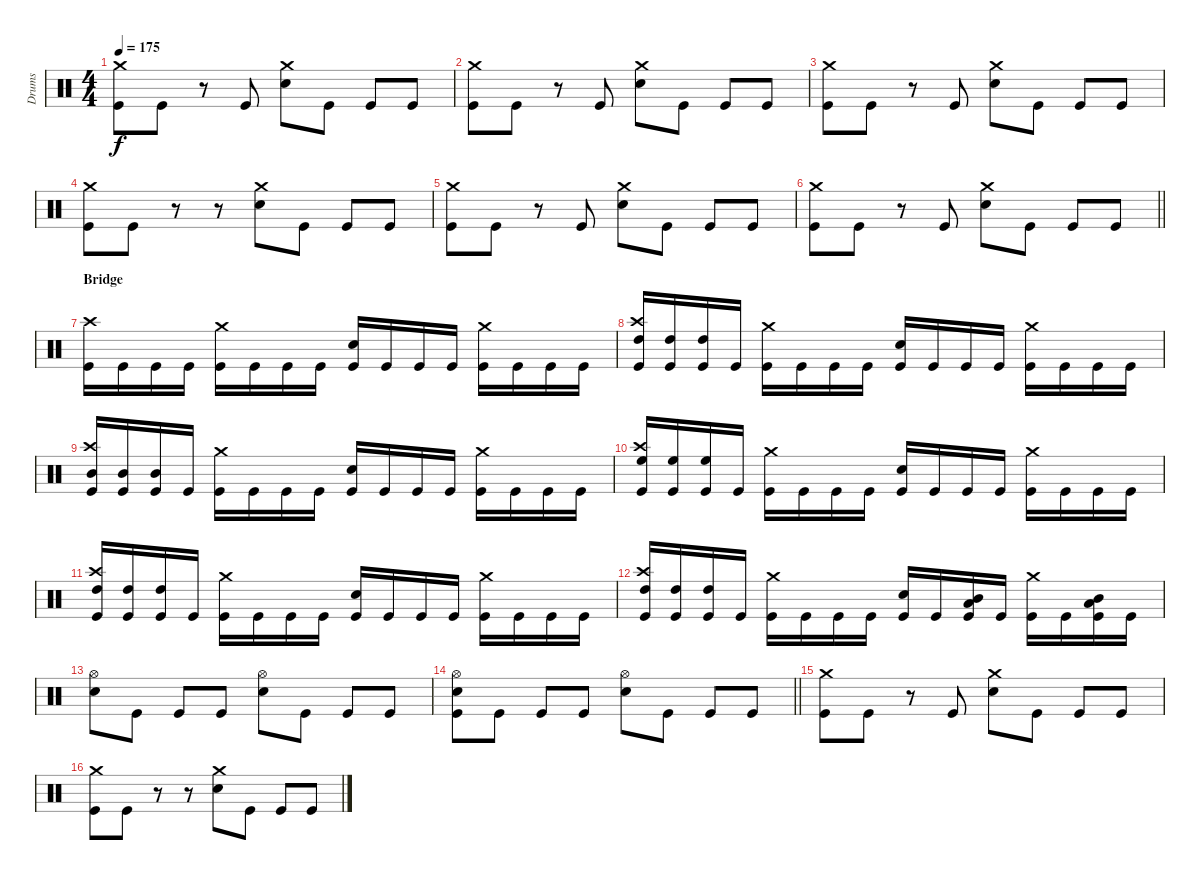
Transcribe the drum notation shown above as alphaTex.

\track ("Drums" "Drums") {instrument percussion}
\staff {score}
\articulation defaults
\ts (4 4)
\tempo 175
\clef neutral
\ks c
("Crash medium (hit)" "Kick (hit)").8{dy f} "Kick (hit)".8 r.8 "Kick (hit)".8 ("Crash medium (hit)" "Electric Snare (hit)").8 "Kick (hit)".8 "Kick (hit)".8 "Kick (hit)".8 |
("Crash medium (hit)" "Kick (hit)").8 "Kick (hit)".8 r.8 "Kick (hit)".8 ("Crash medium (hit)" "Electric Snare (hit)").8 "Kick (hit)".8 "Kick (hit)".8 "Kick (hit)".8 |
("Crash medium (hit)" "Kick (hit)").8 "Kick (hit)".8 r.8 "Kick (hit)".8 ("Crash medium (hit)" "Electric Snare (hit)").8 "Kick (hit)".8 "Kick (hit)".8 "Kick (hit)".8 |
("Crash medium (hit)" "Kick (hit)").8 "Kick (hit)".8 r.8 r.8 ("Crash medium (hit)" "Electric Snare (hit)").8 "Kick (hit)".8 "Kick (hit)".8 "Kick (hit)".8 |
("Crash medium (hit)" "Kick (hit)").8 "Kick (hit)".8 r.8 "Kick (hit)".8 ("Crash medium (hit)" "Electric Snare (hit)").8 "Kick (hit)".8 "Kick (hit)".8 "Kick (hit)".8 |
\barLineRight lightlight
("Crash medium (hit)" "Kick (hit)").8 "Kick (hit)".8 r.8 "Kick (hit)".8 ("Crash medium (hit)" "Electric Snare (hit)").8 "Kick (hit)".8 "Kick (hit)".8 "Kick (hit)".8 |
\section ("" "Bridge")
("Crash high (hit)" "Kick (hit)").16 "Kick (hit)".16 "Kick (hit)".16 "Kick (hit)".16 ("Crash medium (hit)" "Kick (hit)").16 "Kick (hit)".16 "Kick (hit)".16 "Kick (hit)".16 ("Electric Snare (hit)" "Kick (hit)").16 "Kick (hit)".16 "Kick (hit)".16 "Kick (hit)".16 ("Crash medium (hit)" "Kick (hit)").16 "Kick (hit)".16 "Kick (hit)".16 "Kick (hit)".16 |
("Crash high (hit)" "High Tom (hit)" "Kick (hit)").16 ("High Tom (hit)" "Kick (hit)").16 ("High Tom (hit)" "Kick (hit)").16 "Kick (hit)".16 ("Crash medium (hit)" "Kick (hit)").16 "Kick (hit)".16 "Kick (hit)".16 "Kick (hit)".16 ("Electric Snare (hit)" "Kick (hit)").16 "Kick (hit)".16 "Kick (hit)".16 "Kick (hit)".16 ("Crash medium (hit)" "Kick (hit)").16 "Kick (hit)".16 "Kick (hit)".16 "Kick (hit)".16 |
("Crash high (hit)" "Mid Tom (hit)" "Kick (hit)").16 ("Mid Tom (hit)" "Kick (hit)").16 ("Mid Tom (hit)" "Kick (hit)").16 "Kick (hit)".16 ("Crash medium (hit)" "Kick (hit)").16 "Kick (hit)".16 "Kick (hit)".16 "Kick (hit)".16 ("Electric Snare (hit)" "Kick (hit)").16 "Kick (hit)".16 "Kick (hit)".16 "Kick (hit)".16 ("Crash medium (hit)" "Kick (hit)").16 "Kick (hit)".16 "Kick (hit)".16 "Kick (hit)".16 |
("Crash high (hit)" "High Floor Tom (hit)" "Kick (hit)").16 ("High Floor Tom (hit)" "Kick (hit)").16 ("High Floor Tom (hit)" "Kick (hit)").16 "Kick (hit)".16 ("Crash medium (hit)" "Kick (hit)").16 "Kick (hit)".16 "Kick (hit)".16 "Kick (hit)".16 ("Electric Snare (hit)" "Kick (hit)").16 "Kick (hit)".16 "Kick (hit)".16 "Kick (hit)".16 ("Crash medium (hit)" "Kick (hit)").16 "Kick (hit)".16 "Kick (hit)".16 "Kick (hit)".16 |
("Crash high (hit)" "High Tom (hit)" "Kick (hit)").16 ("High Tom (hit)" "Kick (hit)").16 ("High Tom (hit)" "Kick (hit)").16 "Kick (hit)".16 ("Crash medium (hit)" "Kick (hit)").16 "Kick (hit)".16 "Kick (hit)".16 "Kick (hit)".16 ("Electric Snare (hit)" "Kick (hit)").16 "Kick (hit)".16 "Kick (hit)".16 "Kick (hit)".16 ("Crash medium (hit)" "Kick (hit)").16 "Kick (hit)".16 "Kick (hit)".16 "Kick (hit)".16 |
("Crash high (hit)" "High Tom (hit)" "Kick (hit)").16 ("High Tom (hit)" "Kick (hit)").16 ("High Tom (hit)" "Kick (hit)").16 "Kick (hit)".16 ("Crash medium (hit)" "Kick (hit)").16 "Kick (hit)".16 "Kick (hit)".16 "Kick (hit)".16 ("Electric Snare (hit)" "Kick (hit)").16 "Kick (hit)".16 ("Mid Tom (hit)" "Low Tom (hit)" "Kick (hit)").16 "Kick (hit)".16 ("Crash medium (hit)" "Kick (hit)").16 "Kick (hit)".16 ("Mid Tom (hit)" "Low Tom (hit)" "Kick (hit)").16 "Kick (hit)".16 |
("Hi-Hat (open)" "Electric Snare (hit)").8 "Kick (hit)".8 "Kick (hit)".8 "Kick (hit)".8 ("Hi-Hat (open)" "Electric Snare (hit)").8 "Kick (hit)".8 "Kick (hit)".8 "Kick (hit)".8 |
\barLineRight lightlight
("Hi-Hat (open)" "Electric Snare (hit)" "Kick (hit)").8 "Kick (hit)".8 "Kick (hit)".8 "Kick (hit)".8 ("Hi-Hat (open)" "Electric Snare (hit)").8 "Kick (hit)".8 "Kick (hit)".8 "Kick (hit)".8 |
("Crash medium (hit)" "Kick (hit)").8 "Kick (hit)".8 r.8 "Kick (hit)".8 ("Crash medium (hit)" "Electric Snare (hit)").8 "Kick (hit)".8 "Kick (hit)".8 "Kick (hit)".8 |
("Crash medium (hit)" "Kick (hit)").8 "Kick (hit)".8 r.8 r.8 ("Crash medium (hit)" "Electric Snare (hit)").8 "Kick (hit)".8 "Kick (hit)".8 "Kick (hit)".8
